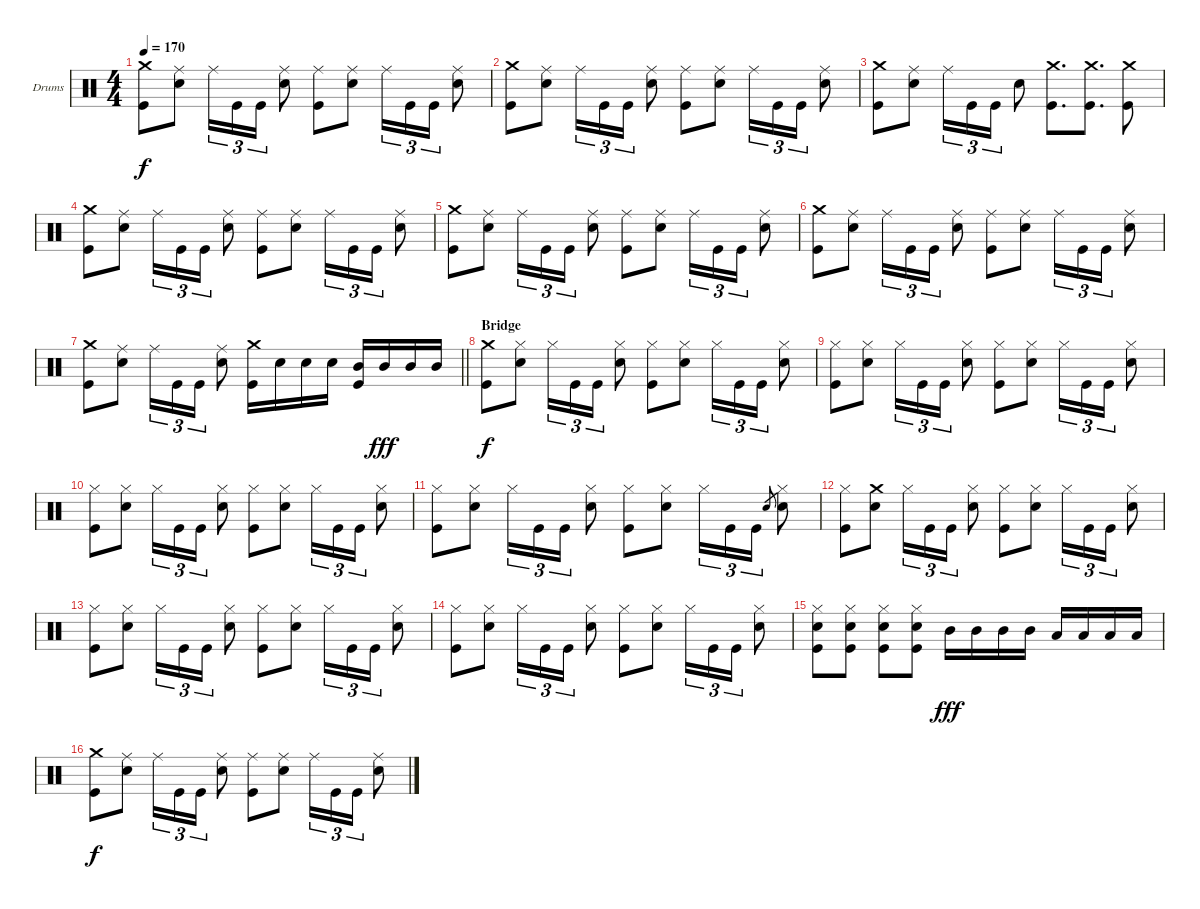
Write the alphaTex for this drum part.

\bracketExtendMode groupsimilarinstruments
\firstSystemTrackNameOrientation horizontal
\otherSystemsTrackNameOrientation horizontal
\track ("Drums" "Drums") {instrument percussion}
\staff {score}
\articulation defaults
\ts (4 4)
\tempo 170
\clef neutral
\ks c
("Crash medium (hit)" "Kick (hit)").8{dy f} ("Ride (middle)" "Snare (hit) 2").8 "Ride (middle)".16{tu (3 2)} "Kick (hit)".16{tu (3 2)} "Kick (hit)".16{tu (3 2)} ("Ride (middle)" "Snare (hit) 2").8 ("Ride (middle)" "Kick (hit)").8 ("Ride (middle)" "Snare (hit) 2").8 "Ride (middle)".16{tu (3 2)} "Kick (hit)".16{tu (3 2)} "Kick (hit)".16{tu (3 2)} ("Ride (middle)" "Snare (hit) 2").8 |
("Crash medium (hit)" "Kick (hit)").8 ("Ride (middle)" "Snare (hit) 2").8 "Ride (middle)".16{tu (3 2)} "Kick (hit)".16{tu (3 2)} "Kick (hit)".16{tu (3 2)} ("Ride (middle)" "Snare (hit) 2").8 ("Ride (middle)" "Kick (hit)").8 ("Ride (middle)" "Snare (hit) 2").8 "Ride (middle)".16{tu (3 2)} "Kick (hit)".16{tu (3 2)} "Kick (hit)".16{tu (3 2)} ("Ride (middle)" "Snare (hit) 2").8 |
("Crash medium (hit)" "Kick (hit)").8 ("Ride (middle)" "Snare (hit) 2").8 "Ride (middle)".16{tu (3 2)} "Kick (hit)".16{tu (3 2)} "Kick (hit)".16{tu (3 2)} "Snare (hit) 2".8 ("Crash medium (hit)" "Kick (hit)").8{d} ("Crash medium (hit)" "Kick (hit)").8{d} ("Crash medium (hit)" "Kick (hit)").8 |
("Crash medium (hit)" "Kick (hit)").8 ("Ride (middle)" "Snare (hit) 2").8 "Ride (middle)".16{tu (3 2)} "Kick (hit)".16{tu (3 2)} "Kick (hit)".16{tu (3 2)} ("Ride (middle)" "Snare (hit) 2").8 ("Ride (middle)" "Kick (hit)").8 ("Ride (middle)" "Snare (hit) 2").8 "Ride (middle)".16{tu (3 2)} "Kick (hit)".16{tu (3 2)} "Kick (hit)".16{tu (3 2)} ("Ride (middle)" "Snare (hit) 2").8 |
("Crash medium (hit)" "Kick (hit)").8 ("Ride (middle)" "Snare (hit) 2").8 "Ride (middle)".16{tu (3 2)} "Kick (hit)".16{tu (3 2)} "Kick (hit)".16{tu (3 2)} ("Ride (middle)" "Snare (hit) 2").8 ("Ride (middle)" "Kick (hit)").8 ("Ride (middle)" "Snare (hit) 2").8 "Ride (middle)".16{tu (3 2)} "Kick (hit)".16{tu (3 2)} "Kick (hit)".16{tu (3 2)} ("Ride (middle)" "Snare (hit) 2").8 |
("Crash medium (hit)" "Kick (hit)").8 ("Ride (middle)" "Snare (hit) 2").8 "Ride (middle)".16{tu (3 2)} "Kick (hit)".16{tu (3 2)} "Kick (hit)".16{tu (3 2)} ("Ride (middle)" "Snare (hit) 2").8 ("Ride (middle)" "Kick (hit)").8 ("Ride (middle)" "Snare (hit) 2").8 "Ride (middle)".16{tu (3 2)} "Kick (hit)".16{tu (3 2)} "Kick (hit)".16{tu (3 2)} ("Ride (middle)" "Snare (hit) 2").8 |
\barLineRight lightlight
("Crash medium (hit)" "Kick (hit)").8 ("Ride (middle)" "Snare (hit) 2").8 "Ride (middle)".16{tu (3 2)} "Kick (hit)".16{tu (3 2)} "Kick (hit)".16{tu (3 2)} ("Ride (middle)" "Snare (hit) 2").8 ("Crash medium (hit)" "Kick (hit)").16 "Snare (hit) 2".16 "Snare (hit) 2".16 "Snare (hit) 2".16 ("Kick (hit)" "Mid Tom (hit)").16 "Mid Tom (hit)".16{dy fff} "Mid Tom (hit)".16 "Mid Tom (hit)".16 |
\section ("" "Bridge")
("Crash medium (hit)" "Kick (hit)").8{dy f} ("Snare (hit) 2" "Hi-Hat (closed)").8 "Hi-Hat (closed)".16{tu (3 2)} "Kick (hit)".16{tu (3 2)} "Kick (hit)".16{tu (3 2)} ("Snare (hit) 2" "Hi-Hat (closed)").8 ("Kick (hit)" "Hi-Hat (closed)").8 ("Snare (hit) 2" "Hi-Hat (closed)").8 "Hi-Hat (closed)".16{tu (3 2)} "Kick (hit)".16{tu (3 2)} "Kick (hit)".16{tu (3 2)} ("Snare (hit) 2" "Hi-Hat (closed)").8 |
("Kick (hit)" "Hi-Hat (closed)").8 ("Snare (hit) 2" "Hi-Hat (closed)").8 "Hi-Hat (closed)".16{tu (3 2)} "Kick (hit)".16{tu (3 2)} "Kick (hit)".16{tu (3 2)} ("Snare (hit) 2" "Hi-Hat (closed)").8 ("Kick (hit)" "Hi-Hat (closed)").8 ("Snare (hit) 2" "Hi-Hat (closed)").8 "Hi-Hat (closed)".16{tu (3 2)} "Kick (hit)".16{tu (3 2)} "Kick (hit)".16{tu (3 2)} ("Snare (hit) 2" "Hi-Hat (closed)").8 |
("Kick (hit)" "Hi-Hat (closed)").8 ("Snare (hit) 2" "Hi-Hat (closed)").8 "Hi-Hat (closed)".16{tu (3 2)} "Kick (hit)".16{tu (3 2)} "Kick (hit)".16{tu (3 2)} ("Snare (hit) 2" "Hi-Hat (closed)").8 ("Kick (hit)" "Hi-Hat (closed)").8 ("Snare (hit) 2" "Hi-Hat (closed)").8 "Hi-Hat (closed)".16{tu (3 2)} "Kick (hit)".16{tu (3 2)} "Kick (hit)".16{tu (3 2)} ("Snare (hit) 2" "Hi-Hat (closed)").8 |
("Kick (hit)" "Hi-Hat (closed)").8 ("Snare (hit) 2" "Hi-Hat (closed)").8 "Hi-Hat (closed)".16{tu (3 2)} "Kick (hit)".16{tu (3 2)} "Kick (hit)".16{tu (3 2)} ("Snare (hit) 2" "Hi-Hat (closed)").8 ("Kick (hit)" "Hi-Hat (closed)").8 ("Snare (hit) 2" "Hi-Hat (closed)").8 "Hi-Hat (closed)".16{tu (3 2)} "Kick (hit)".16{tu (3 2)} "Kick (hit)".16{tu (3 2)} "Snare (hit) 2".8{gr} ("Snare (hit) 2" "Hi-Hat (closed)").8 |
("Kick (hit)" "Hi-Hat (closed)").8 ("Snare (hit) 2" "Crash medium (hit)").8 "Hi-Hat (closed)".16{tu (3 2)} "Kick (hit)".16{tu (3 2)} "Kick (hit)".16{tu (3 2)} ("Snare (hit) 2" "Hi-Hat (closed)").8 ("Kick (hit)" "Hi-Hat (closed)").8 ("Snare (hit) 2" "Hi-Hat (closed)").8 "Hi-Hat (closed)".16{tu (3 2)} "Kick (hit)".16{tu (3 2)} "Kick (hit)".16{tu (3 2)} ("Snare (hit) 2" "Hi-Hat (closed)").8 |
("Kick (hit)" "Hi-Hat (closed)").8 ("Snare (hit) 2" "Hi-Hat (closed)").8 "Hi-Hat (closed)".16{tu (3 2)} "Kick (hit)".16{tu (3 2)} "Kick (hit)".16{tu (3 2)} ("Snare (hit) 2" "Hi-Hat (closed)").8 ("Kick (hit)" "Hi-Hat (closed)").8 ("Snare (hit) 2" "Hi-Hat (closed)").8 "Hi-Hat (closed)".16{tu (3 2)} "Kick (hit)".16{tu (3 2)} "Kick (hit)".16{tu (3 2)} ("Snare (hit) 2" "Hi-Hat (closed)").8 |
("Kick (hit)" "Hi-Hat (closed)").8 ("Snare (hit) 2" "Hi-Hat (closed)").8 "Hi-Hat (closed)".16{tu (3 2)} "Kick (hit)".16{tu (3 2)} "Kick (hit)".16{tu (3 2)} ("Snare (hit) 2" "Hi-Hat (closed)").8 ("Kick (hit)" "Hi-Hat (closed)").8 ("Snare (hit) 2" "Hi-Hat (closed)").8 "Hi-Hat (closed)".16{tu (3 2)} "Kick (hit)".16{tu (3 2)} "Kick (hit)".16{tu (3 2)} ("Snare (hit) 2" "Hi-Hat (closed)").8 |
("Kick (hit)" "Snare (hit) 2" "Hi-Hat (closed)").8 ("Kick (hit)" "Snare (hit) 2" "Hi-Hat (closed)").8 ("Kick (hit)" "Snare (hit) 2" "Hi-Hat (closed)").8 ("Kick (hit)" "Snare (hit) 2" "Hi-Hat (closed)").8 "Mid Tom (hit)".16{dy fff} "Mid Tom (hit)".16 "Mid Tom (hit)".16 "Mid Tom (hit)".16 "Low Tom (hit)".16 "Low Tom (hit)".16 "Low Tom (hit)".16 "Low Tom (hit)".16 |
("Crash medium (hit)" "Kick (hit)").8{dy f} ("Ride (middle)" "Snare (hit) 2").8 "Ride (middle)".16{tu (3 2)} "Kick (hit)".16{tu (3 2)} "Kick (hit)".16{tu (3 2)} ("Ride (middle)" "Snare (hit) 2").8 ("Ride (middle)" "Kick (hit)").8 ("Ride (middle)" "Snare (hit) 2").8 "Ride (middle)".16{tu (3 2)} "Kick (hit)".16{tu (3 2)} "Kick (hit)".16{tu (3 2)} ("Ride (middle)" "Snare (hit) 2").8
